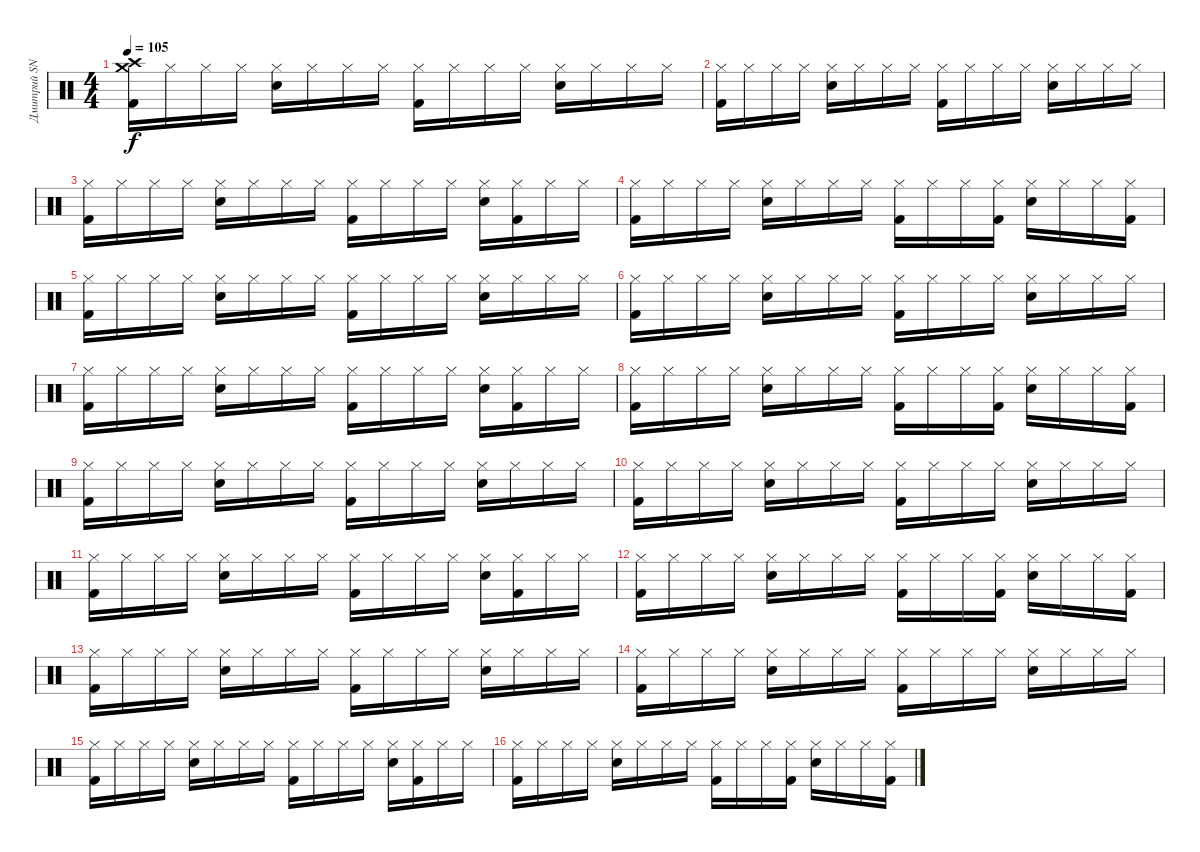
\track ("Дмитрий SNAKE Хакимов (ударные)" "Дмитрий SN") {instrument percussion}
\staff {score}
\articulation defaults
\ts (4 4)
\tempo 105
\clef neutral
\ks c
("Crash high (hit)" "Crash medium (hit)" "Kick (hit) 2").16{dy f} "Hi-Hat (closed)".16 "Hi-Hat (closed)".16 "Hi-Hat (closed)".16 ("Hi-Hat (closed)" "Snare (hit) 2").16 "Hi-Hat (closed)".16 "Hi-Hat (closed)".16 "Hi-Hat (closed)".16 ("Hi-Hat (closed)" "Kick (hit) 2").16 "Hi-Hat (closed)".16 "Hi-Hat (closed)".16 "Hi-Hat (closed)".16 ("Hi-Hat (closed)" "Snare (hit) 2").16 "Hi-Hat (closed)".16 "Hi-Hat (closed)".16 "Hi-Hat (closed)".16 |
("Hi-Hat (closed)" "Kick (hit) 2").16 "Hi-Hat (closed)".16 "Hi-Hat (closed)".16 "Hi-Hat (closed)".16 ("Hi-Hat (closed)" "Snare (hit) 2").16 "Hi-Hat (closed)".16 "Hi-Hat (closed)".16 "Hi-Hat (closed)".16 ("Hi-Hat (closed)" "Kick (hit) 2").16 "Hi-Hat (closed)".16 "Hi-Hat (closed)".16 "Hi-Hat (closed)".16 ("Hi-Hat (closed)" "Snare (hit) 2").16 "Hi-Hat (closed)".16 "Hi-Hat (closed)".16 "Hi-Hat (closed)".16 |
("Hi-Hat (closed)" "Kick (hit) 2").16 "Hi-Hat (closed)".16 "Hi-Hat (closed)".16 "Hi-Hat (closed)".16 ("Hi-Hat (closed)" "Snare (hit) 2").16 "Hi-Hat (closed)".16 "Hi-Hat (closed)".16 "Hi-Hat (closed)".16 ("Hi-Hat (closed)" "Kick (hit) 2").16 "Hi-Hat (closed)".16 "Hi-Hat (closed)".16 "Hi-Hat (closed)".16 ("Hi-Hat (closed)" "Snare (hit) 2").16 ("Hi-Hat (closed)" "Kick (hit) 2").16 "Hi-Hat (closed)".16 "Hi-Hat (closed)".16 |
("Hi-Hat (closed)" "Kick (hit) 2").16 "Hi-Hat (closed)".16 "Hi-Hat (closed)".16 "Hi-Hat (closed)".16 ("Hi-Hat (closed)" "Snare (hit) 2").16 "Hi-Hat (closed)".16 "Hi-Hat (closed)".16 "Hi-Hat (closed)".16 ("Hi-Hat (closed)" "Kick (hit) 2").16 "Hi-Hat (closed)".16 "Hi-Hat (closed)".16 ("Hi-Hat (closed)" "Kick (hit) 2").16 ("Hi-Hat (closed)" "Snare (hit) 2").16 "Hi-Hat (closed)".16 "Hi-Hat (closed)".16 ("Hi-Hat (closed)" "Kick (hit) 2").16 |
("Hi-Hat (closed)" "Kick (hit) 2").16 "Hi-Hat (closed)".16 "Hi-Hat (closed)".16 "Hi-Hat (closed)".16 ("Hi-Hat (closed)" "Snare (hit) 2").16 "Hi-Hat (closed)".16 "Hi-Hat (closed)".16 "Hi-Hat (closed)".16 ("Hi-Hat (closed)" "Kick (hit) 2").16 "Hi-Hat (closed)".16 "Hi-Hat (closed)".16 "Hi-Hat (closed)".16 ("Hi-Hat (closed)" "Snare (hit) 2").16 "Hi-Hat (closed)".16 "Hi-Hat (closed)".16 "Hi-Hat (closed)".16 |
("Hi-Hat (closed)" "Kick (hit) 2").16 "Hi-Hat (closed)".16 "Hi-Hat (closed)".16 "Hi-Hat (closed)".16 ("Hi-Hat (closed)" "Snare (hit) 2").16 "Hi-Hat (closed)".16 "Hi-Hat (closed)".16 "Hi-Hat (closed)".16 ("Hi-Hat (closed)" "Kick (hit) 2").16 "Hi-Hat (closed)".16 "Hi-Hat (closed)".16 "Hi-Hat (closed)".16 ("Hi-Hat (closed)" "Snare (hit) 2").16 "Hi-Hat (closed)".16 "Hi-Hat (closed)".16 "Hi-Hat (closed)".16 |
("Hi-Hat (closed)" "Kick (hit) 2").16 "Hi-Hat (closed)".16 "Hi-Hat (closed)".16 "Hi-Hat (closed)".16 ("Hi-Hat (closed)" "Snare (hit) 2").16 "Hi-Hat (closed)".16 "Hi-Hat (closed)".16 "Hi-Hat (closed)".16 ("Hi-Hat (closed)" "Kick (hit) 2").16 "Hi-Hat (closed)".16 "Hi-Hat (closed)".16 "Hi-Hat (closed)".16 ("Hi-Hat (closed)" "Snare (hit) 2").16 ("Hi-Hat (closed)" "Kick (hit) 2").16 "Hi-Hat (closed)".16 "Hi-Hat (closed)".16 |
("Hi-Hat (closed)" "Kick (hit) 2").16 "Hi-Hat (closed)".16 "Hi-Hat (closed)".16 "Hi-Hat (closed)".16 ("Hi-Hat (closed)" "Snare (hit) 2").16 "Hi-Hat (closed)".16 "Hi-Hat (closed)".16 "Hi-Hat (closed)".16 ("Hi-Hat (closed)" "Kick (hit) 2").16 "Hi-Hat (closed)".16 "Hi-Hat (closed)".16 ("Hi-Hat (closed)" "Kick (hit) 2").16 ("Hi-Hat (closed)" "Snare (hit) 2").16 "Hi-Hat (closed)".16 "Hi-Hat (closed)".16 ("Hi-Hat (closed)" "Kick (hit) 2").16 |
("Hi-Hat (closed)" "Kick (hit) 2").16 "Hi-Hat (closed)".16 "Hi-Hat (closed)".16 "Hi-Hat (closed)".16 ("Hi-Hat (closed)" "Snare (hit) 2").16 "Hi-Hat (closed)".16 "Hi-Hat (closed)".16 "Hi-Hat (closed)".16 ("Hi-Hat (closed)" "Kick (hit) 2").16 "Hi-Hat (closed)".16 "Hi-Hat (closed)".16 "Hi-Hat (closed)".16 ("Hi-Hat (closed)" "Snare (hit) 2").16 "Hi-Hat (closed)".16 "Hi-Hat (closed)".16 "Hi-Hat (closed)".16 |
("Hi-Hat (closed)" "Kick (hit) 2").16 "Hi-Hat (closed)".16 "Hi-Hat (closed)".16 "Hi-Hat (closed)".16 ("Hi-Hat (closed)" "Snare (hit) 2").16 "Hi-Hat (closed)".16 "Hi-Hat (closed)".16 "Hi-Hat (closed)".16 ("Hi-Hat (closed)" "Kick (hit) 2").16 "Hi-Hat (closed)".16 "Hi-Hat (closed)".16 "Hi-Hat (closed)".16 ("Hi-Hat (closed)" "Snare (hit) 2").16 "Hi-Hat (closed)".16 "Hi-Hat (closed)".16 "Hi-Hat (closed)".16 |
("Hi-Hat (closed)" "Kick (hit) 2").16 "Hi-Hat (closed)".16 "Hi-Hat (closed)".16 "Hi-Hat (closed)".16 ("Hi-Hat (closed)" "Snare (hit) 2").16 "Hi-Hat (closed)".16 "Hi-Hat (closed)".16 "Hi-Hat (closed)".16 ("Hi-Hat (closed)" "Kick (hit) 2").16 "Hi-Hat (closed)".16 "Hi-Hat (closed)".16 "Hi-Hat (closed)".16 ("Hi-Hat (closed)" "Snare (hit) 2").16 ("Hi-Hat (closed)" "Kick (hit) 2").16 "Hi-Hat (closed)".16 "Hi-Hat (closed)".16 |
("Hi-Hat (closed)" "Kick (hit) 2").16 "Hi-Hat (closed)".16 "Hi-Hat (closed)".16 "Hi-Hat (closed)".16 ("Hi-Hat (closed)" "Snare (hit) 2").16 "Hi-Hat (closed)".16 "Hi-Hat (closed)".16 "Hi-Hat (closed)".16 ("Hi-Hat (closed)" "Kick (hit) 2").16 "Hi-Hat (closed)".16 "Hi-Hat (closed)".16 ("Hi-Hat (closed)" "Kick (hit) 2").16 ("Hi-Hat (closed)" "Snare (hit) 2").16 "Hi-Hat (closed)".16 "Hi-Hat (closed)".16 ("Hi-Hat (closed)" "Kick (hit) 2").16 |
("Hi-Hat (closed)" "Kick (hit) 2").16 "Hi-Hat (closed)".16 "Hi-Hat (closed)".16 "Hi-Hat (closed)".16 ("Hi-Hat (closed)" "Snare (hit) 2").16 "Hi-Hat (closed)".16 "Hi-Hat (closed)".16 "Hi-Hat (closed)".16 ("Hi-Hat (closed)" "Kick (hit) 2").16 "Hi-Hat (closed)".16 "Hi-Hat (closed)".16 "Hi-Hat (closed)".16 ("Hi-Hat (closed)" "Snare (hit) 2").16 "Hi-Hat (closed)".16 "Hi-Hat (closed)".16 "Hi-Hat (closed)".16 |
("Hi-Hat (closed)" "Kick (hit) 2").16 "Hi-Hat (closed)".16 "Hi-Hat (closed)".16 "Hi-Hat (closed)".16 ("Hi-Hat (closed)" "Snare (hit) 2").16 "Hi-Hat (closed)".16 "Hi-Hat (closed)".16 "Hi-Hat (closed)".16 ("Hi-Hat (closed)" "Kick (hit) 2").16 "Hi-Hat (closed)".16 "Hi-Hat (closed)".16 "Hi-Hat (closed)".16 ("Hi-Hat (closed)" "Snare (hit) 2").16 "Hi-Hat (closed)".16 "Hi-Hat (closed)".16 "Hi-Hat (closed)".16 |
("Hi-Hat (closed)" "Kick (hit) 2").16 "Hi-Hat (closed)".16 "Hi-Hat (closed)".16 "Hi-Hat (closed)".16 ("Hi-Hat (closed)" "Snare (hit) 2").16 "Hi-Hat (closed)".16 "Hi-Hat (closed)".16 "Hi-Hat (closed)".16 ("Hi-Hat (closed)" "Kick (hit) 2").16 "Hi-Hat (closed)".16 "Hi-Hat (closed)".16 "Hi-Hat (closed)".16 ("Hi-Hat (closed)" "Snare (hit) 2").16 ("Hi-Hat (closed)" "Kick (hit) 2").16 "Hi-Hat (closed)".16 "Hi-Hat (closed)".16 |
("Hi-Hat (closed)" "Kick (hit) 2").16 "Hi-Hat (closed)".16 "Hi-Hat (closed)".16 "Hi-Hat (closed)".16 ("Hi-Hat (closed)" "Snare (hit) 2").16 "Hi-Hat (closed)".16 "Hi-Hat (closed)".16 "Hi-Hat (closed)".16 ("Hi-Hat (closed)" "Kick (hit) 2").16 "Hi-Hat (closed)".16 "Hi-Hat (closed)".16 ("Hi-Hat (closed)" "Kick (hit) 2").16 ("Hi-Hat (closed)" "Snare (hit) 2").16 "Hi-Hat (closed)".16 "Hi-Hat (closed)".16 ("Hi-Hat (closed)" "Kick (hit) 2").16
